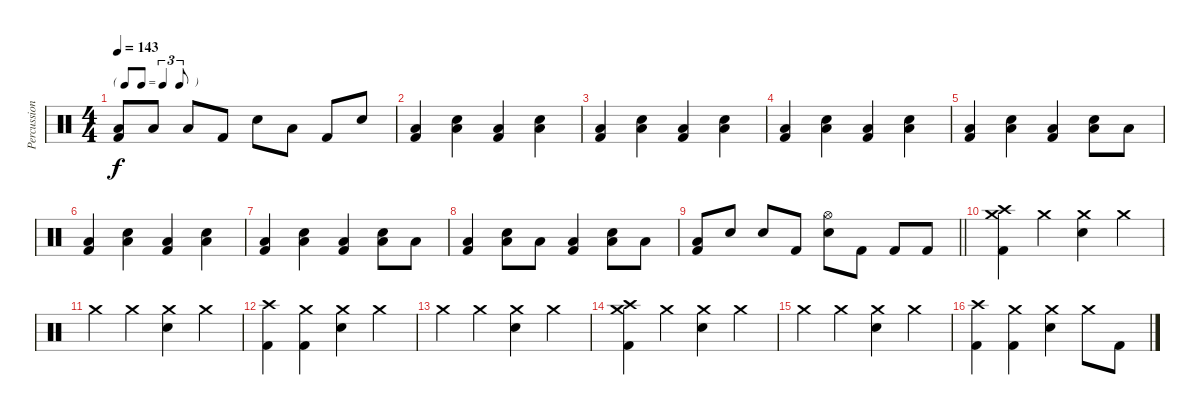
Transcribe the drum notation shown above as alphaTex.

\track ("Percussion" "Percussion") {instrument percussion}
\staff {score}
\articulation defaults
\ts (4 4)
\tf triplet8th
\tempo 143
\clef neutral
\ks c
("Low Floor Tom (hit)" "Kick (hit) 2").8{dy f} "Low Tom (hit)".8 "Low Floor Tom (hit)".8 "Kick (hit) 2".8 "Electric Snare (hit)".8 "Low Floor Tom (hit)".8 "Kick (hit) 2".8 "Electric Snare (hit)".8 |
("Low Floor Tom (hit)" "Kick (hit) 2").4 ("Low Floor Tom (hit)" "Electric Snare (hit)").4 ("Low Floor Tom (hit)" "Kick (hit) 2").4 ("Low Floor Tom (hit)" "Electric Snare (hit)").4 |
("Low Floor Tom (hit)" "Kick (hit) 2").4 ("Low Floor Tom (hit)" "Electric Snare (hit)").4 ("Low Floor Tom (hit)" "Kick (hit) 2").4 ("Low Floor Tom (hit)" "Electric Snare (hit)").4 |
("Low Floor Tom (hit)" "Kick (hit) 2").4 ("Low Floor Tom (hit)" "Electric Snare (hit)").4 ("Low Floor Tom (hit)" "Kick (hit) 2").4 ("Low Floor Tom (hit)" "Electric Snare (hit)").4 |
("Low Floor Tom (hit)" "Kick (hit) 2").4 ("Low Floor Tom (hit)" "Electric Snare (hit)").4 ("Low Floor Tom (hit)" "Kick (hit) 2").4 ("Low Floor Tom (hit)" "Electric Snare (hit)").8 "Low Tom (hit)".8 |
("Low Floor Tom (hit)" "Kick (hit) 2").4 ("Low Floor Tom (hit)" "Electric Snare (hit)").4 ("Low Floor Tom (hit)" "Kick (hit) 2").4 ("Low Floor Tom (hit)" "Electric Snare (hit)").4 |
("Low Floor Tom (hit)" "Kick (hit) 2").4 ("Low Floor Tom (hit)" "Electric Snare (hit)").4 ("Low Floor Tom (hit)" "Kick (hit) 2").4 ("Low Floor Tom (hit)" "Electric Snare (hit)").8 "Low Tom (hit)".8 |
("Low Floor Tom (hit)" "Kick (hit) 2").4 ("Low Floor Tom (hit)" "Electric Snare (hit)").8 "Low Tom (hit)".8 ("Low Floor Tom (hit)" "Kick (hit) 2").4 ("Low Floor Tom (hit)" "Electric Snare (hit)").8 "Low Tom (hit)".8 |
\barLineRight lightlight
("Low Floor Tom (hit)" "Kick (hit) 2").8 "Electric Snare (hit)".8 "Electric Snare (hit)".8 "Kick (hit) 2".8 ("Hi-Hat (open)" "Electric Snare (hit)").8 "Kick (hit) 2".8 "Kick (hit) 2".8 "Kick (hit) 2".8 |
\section ("" "")
("Crash medium (hit)" "Crash high (hit)" "Kick (hit) 2").4 "Crash medium (hit)".4 ("Crash medium (hit)" "Electric Snare (hit)").4 "Crash medium (hit)".4 |
"Crash medium (hit)".4 "Crash medium (hit)".4 ("Crash medium (hit)" "Electric Snare (hit)").4 "Crash medium (hit)".4 |
("Crash high (hit)" "Kick (hit) 2").4 ("Crash medium (hit)" "Kick (hit) 2").4 ("Crash medium (hit)" "Electric Snare (hit)").4 "Crash medium (hit)".4 |
"Crash medium (hit)".4 "Crash medium (hit)".4 ("Crash medium (hit)" "Electric Snare (hit)").4 "Crash medium (hit)".4 |
("Crash medium (hit)" "Crash high (hit)" "Kick (hit) 2").4 "Crash medium (hit)".4 ("Crash medium (hit)" "Electric Snare (hit)").4 "Crash medium (hit)".4 |
"Crash medium (hit)".4 "Crash medium (hit)".4 ("Crash medium (hit)" "Electric Snare (hit)").4 "Crash medium (hit)".4 |
("Crash high (hit)" "Kick (hit) 2").4 ("Crash medium (hit)" "Kick (hit) 2").4 ("Crash medium (hit)" "Electric Snare (hit)").4 "Crash medium (hit)".8 "Kick (hit) 2".8
